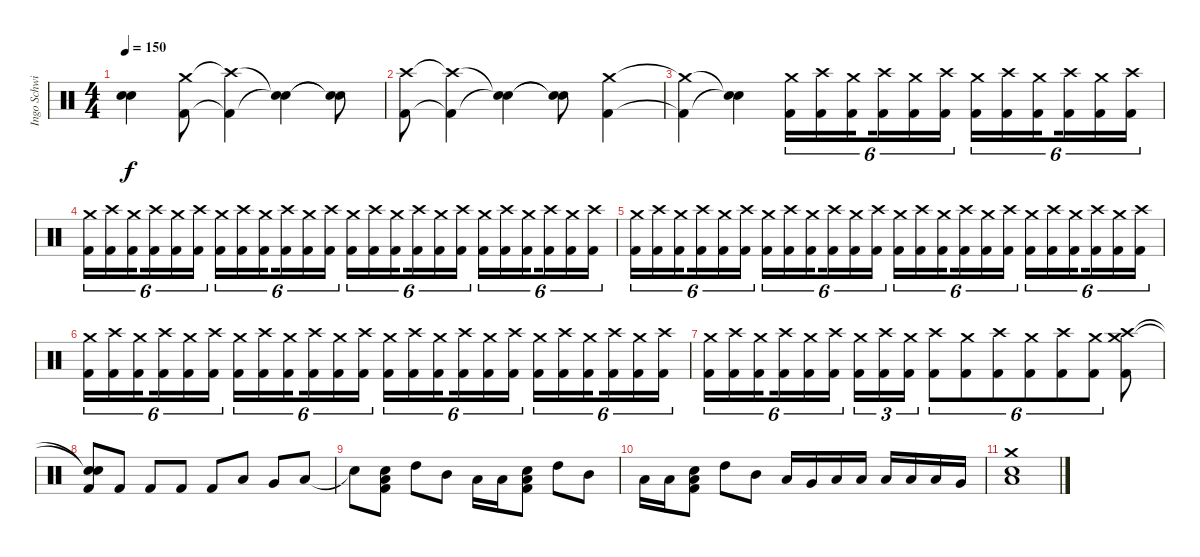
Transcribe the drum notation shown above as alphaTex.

\track ("Ingo Schwichtenberg" "Ingo Schwi") {instrument percussion}
\staff {score}
\articulation defaults
\ts (4 4)
\tempo 150
\clef neutral
\ks c
("Snare (hit)"{t} "Snare (hit)"{t}).4{dy f} ("Crash medium (hit)" "Kick (hit) 2").8 ("Crash high (hit)"{t} "Kick (hit) 2"{t}).4 ("Snare (hit)"{t} "Snare (hit)"{t}).4 ("Snare (hit)"{t} "Snare (hit)"{t}).8 |
("Crash high (hit)" "Kick (hit) 2").8 ("Crash high (hit)"{t} "Kick (hit) 2"{t}).4 ("Snare (hit)"{t} "Snare (hit)"{t}).4 ("Snare (hit)"{t} "Snare (hit)"{t}).8 ("Crash medium (hit)" "Kick (hit) 2").4 |
("Crash medium (hit)"{t} "Kick (hit) 2"{t}).4 ("Snare (hit)"{t} "Snare (hit)"{t}).4 ("Crash medium (hit)" "Kick (hit) 2").16{tu (6 4)} ("Crash high (hit)" "Kick (hit) 2").16{tu (6 4)} ("Crash medium (hit)" "Kick (hit) 2").16{tu (6 4) beam splitsecondary} ("Crash high (hit)" "Kick (hit) 2").16{tu (6 4)} ("Crash medium (hit)" "Kick (hit) 2").16{tu (6 4)} ("Crash high (hit)" "Kick (hit) 2").16{tu (6 4)} ("Crash medium (hit)" "Kick (hit) 2").16{tu (6 4)} ("Crash high (hit)" "Kick (hit) 2").16{tu (6 4)} ("Crash medium (hit)" "Kick (hit) 2").16{tu (6 4) beam splitsecondary} ("Crash high (hit)" "Kick (hit) 2").16{tu (6 4)} ("Crash medium (hit)" "Kick (hit) 2").16{tu (6 4)} ("Crash high (hit)" "Kick (hit) 2").16{tu (6 4)} |
("Crash medium (hit)" "Kick (hit) 2").16{tu (6 4)} ("Crash high (hit)" "Kick (hit) 2").16{tu (6 4)} ("Crash medium (hit)" "Kick (hit) 2").16{tu (6 4) beam splitsecondary} ("Crash high (hit)" "Kick (hit) 2").16{tu (6 4)} ("Crash medium (hit)" "Kick (hit) 2").16{tu (6 4)} ("Crash high (hit)" "Kick (hit) 2").16{tu (6 4)} ("Crash medium (hit)" "Kick (hit) 2").16{tu (6 4)} ("Crash high (hit)" "Kick (hit) 2").16{tu (6 4)} ("Crash medium (hit)" "Kick (hit) 2").16{tu (6 4) beam splitsecondary} ("Crash high (hit)" "Kick (hit) 2").16{tu (6 4)} ("Crash medium (hit)" "Kick (hit) 2").16{tu (6 4)} ("Crash high (hit)" "Kick (hit) 2").16{tu (6 4)} ("Crash medium (hit)" "Kick (hit) 2").16{tu (6 4)} ("Crash high (hit)" "Kick (hit) 2").16{tu (6 4)} ("Crash medium (hit)" "Kick (hit) 2").16{tu (6 4) beam splitsecondary} ("Crash high (hit)" "Kick (hit) 2").16{tu (6 4)} ("Crash medium (hit)" "Kick (hit) 2").16{tu (6 4)} ("Crash high (hit)" "Kick (hit) 2").16{tu (6 4)} ("Crash medium (hit)" "Kick (hit) 2").16{tu (6 4)} ("Crash high (hit)" "Kick (hit) 2").16{tu (6 4)} ("Crash medium (hit)" "Kick (hit) 2").16{tu (6 4) beam splitsecondary} ("Crash high (hit)" "Kick (hit) 2").16{tu (6 4)} ("Crash medium (hit)" "Kick (hit) 2").16{tu (6 4)} ("Crash high (hit)" "Kick (hit) 2").16{tu (6 4)} |
("Crash medium (hit)" "Kick (hit) 2").16{tu (6 4)} ("Crash high (hit)" "Kick (hit) 2").16{tu (6 4)} ("Crash medium (hit)" "Kick (hit) 2").16{tu (6 4) beam splitsecondary} ("Crash high (hit)" "Kick (hit) 2").16{tu (6 4)} ("Crash medium (hit)" "Kick (hit) 2").16{tu (6 4)} ("Crash high (hit)" "Kick (hit) 2").16{tu (6 4)} ("Crash medium (hit)" "Kick (hit) 2").16{tu (6 4)} ("Crash high (hit)" "Kick (hit) 2").16{tu (6 4)} ("Crash medium (hit)" "Kick (hit) 2").16{tu (6 4) beam splitsecondary} ("Crash high (hit)" "Kick (hit) 2").16{tu (6 4)} ("Crash medium (hit)" "Kick (hit) 2").16{tu (6 4)} ("Crash high (hit)" "Kick (hit) 2").16{tu (6 4)} ("Crash medium (hit)" "Kick (hit) 2").16{tu (6 4)} ("Crash high (hit)" "Kick (hit) 2").16{tu (6 4)} ("Crash medium (hit)" "Kick (hit) 2").16{tu (6 4) beam splitsecondary} ("Crash high (hit)" "Kick (hit) 2").16{tu (6 4)} ("Crash medium (hit)" "Kick (hit) 2").16{tu (6 4)} ("Crash high (hit)" "Kick (hit) 2").16{tu (6 4)} ("Crash medium (hit)" "Kick (hit) 2").16{tu (6 4)} ("Crash high (hit)" "Kick (hit) 2").16{tu (6 4)} ("Crash medium (hit)" "Kick (hit) 2").16{tu (6 4) beam splitsecondary} ("Crash high (hit)" "Kick (hit) 2").16{tu (6 4)} ("Crash medium (hit)" "Kick (hit) 2").16{tu (6 4)} ("Crash high (hit)" "Kick (hit) 2").16{tu (6 4)} |
("Crash medium (hit)" "Kick (hit) 2").16{tu (6 4)} ("Crash high (hit)" "Kick (hit) 2").16{tu (6 4)} ("Crash medium (hit)" "Kick (hit) 2").16{tu (6 4) beam splitsecondary} ("Crash high (hit)" "Kick (hit) 2").16{tu (6 4)} ("Crash medium (hit)" "Kick (hit) 2").16{tu (6 4)} ("Crash high (hit)" "Kick (hit) 2").16{tu (6 4)} ("Crash medium (hit)" "Kick (hit) 2").16{tu (6 4)} ("Crash high (hit)" "Kick (hit) 2").16{tu (6 4)} ("Crash medium (hit)" "Kick (hit) 2").16{tu (6 4) beam splitsecondary} ("Crash high (hit)" "Kick (hit) 2").16{tu (6 4)} ("Crash medium (hit)" "Kick (hit) 2").16{tu (6 4)} ("Crash high (hit)" "Kick (hit) 2").16{tu (6 4)} ("Crash medium (hit)" "Kick (hit) 2").16{tu (6 4)} ("Crash high (hit)" "Kick (hit) 2").16{tu (6 4)} ("Crash medium (hit)" "Kick (hit) 2").16{tu (6 4) beam splitsecondary} ("Crash high (hit)" "Kick (hit) 2").16{tu (6 4)} ("Crash medium (hit)" "Kick (hit) 2").16{tu (6 4)} ("Crash high (hit)" "Kick (hit) 2").16{tu (6 4)} ("Crash medium (hit)" "Kick (hit) 2").16{tu (6 4)} ("Crash high (hit)" "Kick (hit) 2").16{tu (6 4)} ("Crash medium (hit)" "Kick (hit) 2").16{tu (6 4) beam splitsecondary} ("Crash high (hit)" "Kick (hit) 2").16{tu (6 4)} ("Crash medium (hit)" "Kick (hit) 2").16{tu (6 4)} ("Crash high (hit)" "Kick (hit) 2").16{tu (6 4)} |
("Crash medium (hit)" "Kick (hit) 2").16{tu (6 4)} ("Crash high (hit)" "Kick (hit) 2").16{tu (6 4)} ("Crash medium (hit)" "Kick (hit) 2").16{tu (6 4) beam splitsecondary} ("Crash high (hit)" "Kick (hit) 2").16{tu (6 4)} ("Crash medium (hit)" "Kick (hit) 2").16{tu (6 4)} ("Crash high (hit)" "Kick (hit) 2").16{tu (6 4)} ("Crash medium (hit)" "Kick (hit) 2").16{tu (3 2)} ("Crash high (hit)" "Kick (hit) 2").16{tu (3 2)} ("Crash medium (hit)" "Kick (hit) 2").16{tu (3 2)} ("Crash high (hit)" "Kick (hit) 2").8{tu (6 4)} ("Crash medium (hit)" "Kick (hit) 2").8{tu (6 4)} ("Crash high (hit)" "Kick (hit) 2").8{tu (6 4)} ("Crash medium (hit)" "Kick (hit) 2").8{tu (6 4)} ("Crash high (hit)" "Kick (hit) 2").8{tu (6 4)} ("Crash medium (hit)" "Kick (hit) 2").8{tu (6 4)} ("Crash medium (hit)" "Crash high (hit)" "Kick (hit) 2").8 |
("Snare (hit)"{t} "Snare (hit)"{t} "Kick (hit) 2").8 "Kick (hit) 2".8 "Kick (hit) 2".8 "Kick (hit) 2".8 "Kick (hit) 2".8 "Low Tom (hit)".8 "Very Low Tom (hit)".8 "Low Floor Tom (hit)".8 |
"Snare (hit)"{t}.8 ("Low Tom (hit)" "Snare (hit) 2" "Kick (hit) 2").8 "High Tom (hit)".8 "Mid Tom (hit)".8 "Low Tom (hit)".16 "Low Floor Tom (hit)".16 ("Low Tom (hit)" "Snare (hit) 2" "Kick (hit) 2").8 "High Tom (hit)".8 "Mid Tom (hit)".8 |
"Low Tom (hit)".16 "Low Floor Tom (hit)".16 ("Low Tom (hit)" "Snare (hit) 2" "Kick (hit) 2").8 "High Tom (hit)".8 "Mid Tom (hit)".8 "Low Tom (hit)".16 "Very Low Tom (hit)".16 "Low Floor Tom (hit)".16 "Low Floor Tom (hit)".16 "Low Floor Tom (hit)".16 "Low Floor Tom (hit)".16 "Low Floor Tom (hit)".16 "Very Low Tom (hit)".16 |
("Crash medium (hit)" "Low Tom (hit)" "Snare (hit) 2").1
